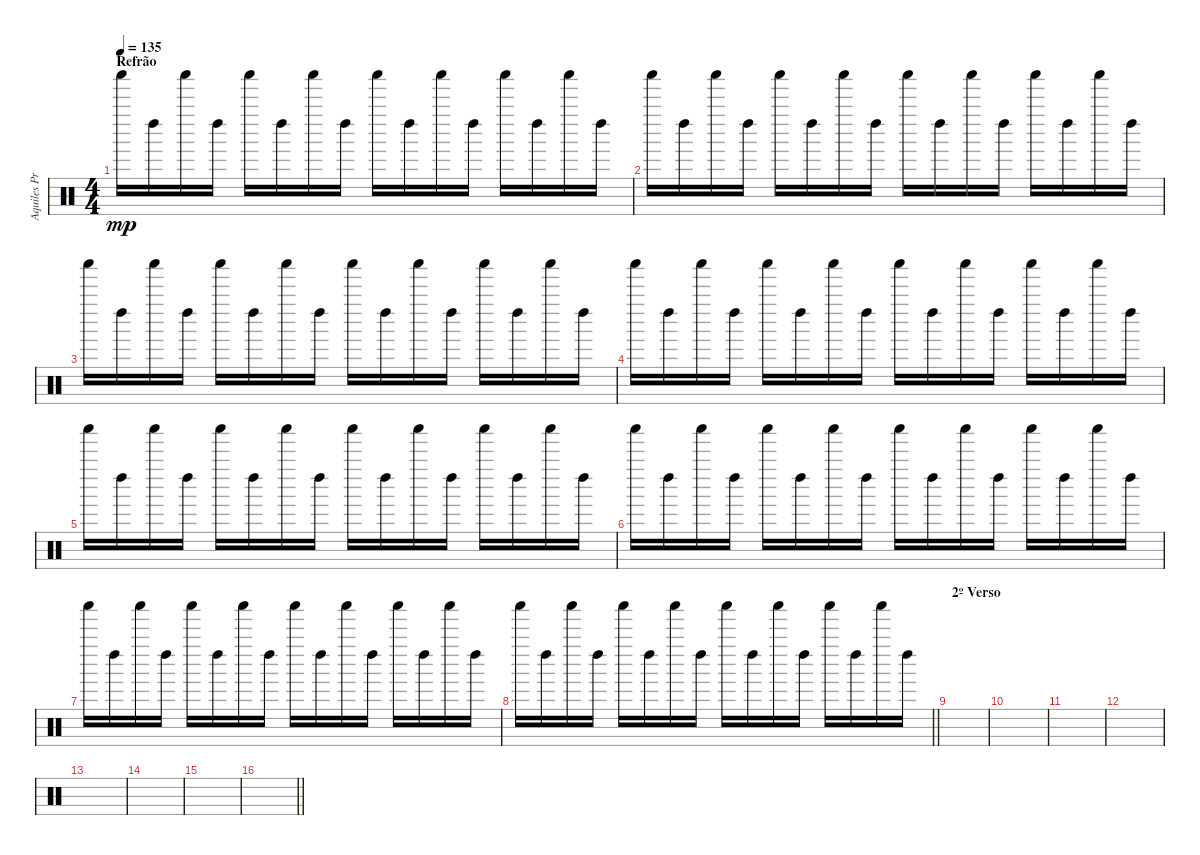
\track ("Aquiles Priester" "Aquiles Pr") {instrument percussion}
\staff {score}
\articulation defaults
\ts (4 4)
\section ("" "Refrão")
\tempo 135
\clef neutral
\ks c "Shaker (hit)".16{dy mp} "Left Maraca (hit)".16 "Shaker (hit)".16 "Left Maraca (hit)".16 "Shaker (hit)".16 "Left Maraca (hit)".16 "Shaker (hit)".16 "Left Maraca (hit)".16 "Shaker (hit)".16 "Left Maraca (hit)".16 "Shaker (hit)".16 "Left Maraca (hit)".16 "Shaker (hit)".16 "Left Maraca (hit)".16 "Shaker (hit)".16 "Left Maraca (hit)".16
|
"Shaker (hit)".16 "Left Maraca (hit)".16 "Shaker (hit)".16 "Left Maraca (hit)".16 "Shaker (hit)".16 "Left Maraca (hit)".16 "Shaker (hit)".16 "Left Maraca (hit)".16 "Shaker (hit)".16 "Left Maraca (hit)".16 "Shaker (hit)".16 "Left Maraca (hit)".16 "Shaker (hit)".16 "Left Maraca (hit)".16 "Shaker (hit)".16 "Left Maraca (hit)".16 |
"Shaker (hit)".16 "Left Maraca (hit)".16 "Shaker (hit)".16 "Left Maraca (hit)".16 "Shaker (hit)".16 "Left Maraca (hit)".16 "Shaker (hit)".16 "Left Maraca (hit)".16 "Shaker (hit)".16 "Left Maraca (hit)".16 "Shaker (hit)".16 "Left Maraca (hit)".16 "Shaker (hit)".16 "Left Maraca (hit)".16 "Shaker (hit)".16 "Left Maraca (hit)".16 |
"Shaker (hit)".16 "Left Maraca (hit)".16 "Shaker (hit)".16 "Left Maraca (hit)".16 "Shaker (hit)".16 "Left Maraca (hit)".16 "Shaker (hit)".16 "Left Maraca (hit)".16 "Shaker (hit)".16 "Left Maraca (hit)".16 "Shaker (hit)".16 "Left Maraca (hit)".16 "Shaker (hit)".16 "Left Maraca (hit)".16 "Shaker (hit)".16 "Left Maraca (hit)".16 |
"Shaker (hit)".16 "Left Maraca (hit)".16 "Shaker (hit)".16 "Left Maraca (hit)".16 "Shaker (hit)".16 "Left Maraca (hit)".16 "Shaker (hit)".16 "Left Maraca (hit)".16 "Shaker (hit)".16 "Left Maraca (hit)".16 "Shaker (hit)".16 "Left Maraca (hit)".16 "Shaker (hit)".16 "Left Maraca (hit)".16 "Shaker (hit)".16 "Left Maraca (hit)".16 |
"Shaker (hit)".16 "Left Maraca (hit)".16 "Shaker (hit)".16 "Left Maraca (hit)".16 "Shaker (hit)".16 "Left Maraca (hit)".16 "Shaker (hit)".16 "Left Maraca (hit)".16 "Shaker (hit)".16 "Left Maraca (hit)".16 "Shaker (hit)".16 "Left Maraca (hit)".16 "Shaker (hit)".16 "Left Maraca (hit)".16 "Shaker (hit)".16 "Left Maraca (hit)".16 |
"Shaker (hit)".16 "Left Maraca (hit)".16 "Shaker (hit)".16 "Left Maraca (hit)".16 "Shaker (hit)".16 "Left Maraca (hit)".16 "Shaker (hit)".16 "Left Maraca (hit)".16 "Shaker (hit)".16 "Left Maraca (hit)".16 "Shaker (hit)".16 "Left Maraca (hit)".16 "Shaker (hit)".16 "Left Maraca (hit)".16 "Shaker (hit)".16 "Left Maraca (hit)".16 |
\barLineRight lightlight "Shaker (hit)".16 "Left Maraca (hit)".16 "Shaker (hit)".16 "Left Maraca (hit)".16 "Shaker (hit)".16 "Left Maraca (hit)".16 "Shaker (hit)".16 "Left Maraca (hit)".16 "Shaker (hit)".16 "Left Maraca (hit)".16 "Shaker (hit)".16 "Left Maraca (hit)".16 "Shaker (hit)".16 "Left Maraca (hit)".16 "Shaker (hit)".16 "Left Maraca (hit)".16
|
\section ("" "2º Verso")
|
|
|
|
|
|
|
\barLineRight lightlight
